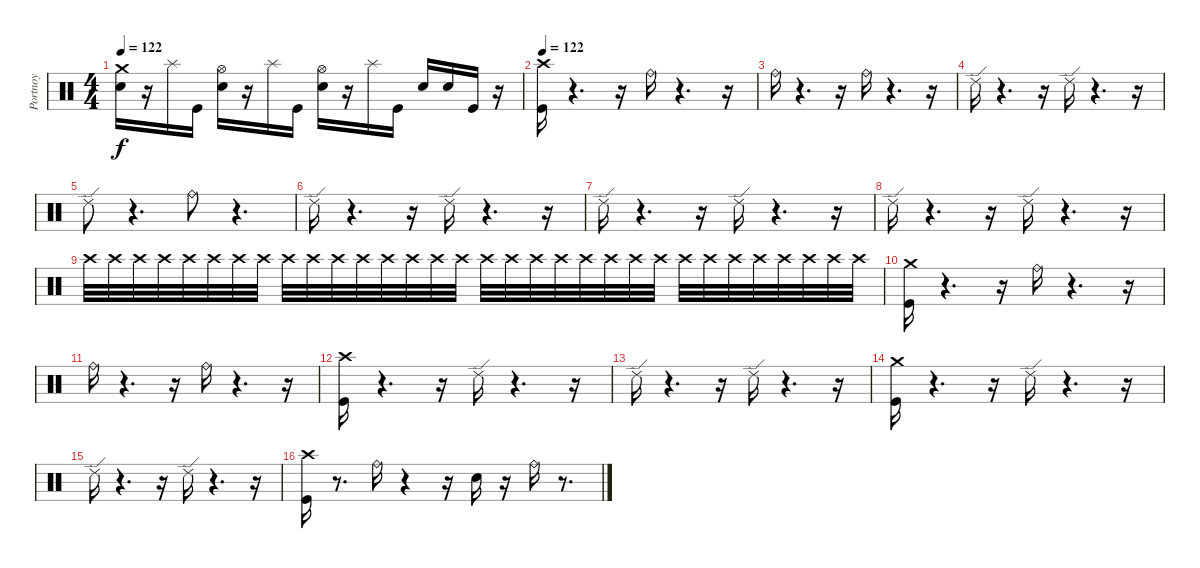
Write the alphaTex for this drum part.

\track ("Portnoy" "Portnoy") {instrument percussion}
\staff {score}
\articulation defaults
\ts (4 4)
\tempo 122
\clef neutral
\ks c
("Crash medium (hit)" "Metronome (bell)").16{dy f} r.16 "Splash (hit)".16 "Kick (hit)".16 ("Hi-Hat (open)" "Metronome (bell)").16 r.16 "Splash (hit)".16 "Kick (hit)".16 ("Hi-Hat (open)" "Metronome (bell)").16 r.16 "Splash (hit)".16 "Kick (hit)".16 "Metronome (bell)".16 "Metronome (bell)".16 "Kick (hit)".16 r.16 |
\tempo 122
("Crash high (hit)" "Kick (hit)").16 r.4{d} r.16 "Ride (bell)".16 r.4{d} r.16 |
"Ride (bell)".16 r.4{d} r.16 "Ride (bell)".16 r.4{d} r.16 |
"Ride (edge) 2".16 r.4{d} r.16 "Ride (edge) 2".16 r.4{d} r.16 |
"Ride (edge) 2".8 r.4{d} "Ride (bell)".8 r.4{d} |
"Ride (edge) 2".16 r.4{d} r.16 "Ride (edge) 2".16 r.4{d} r.16 |
"Ride (edge) 2".16 r.4{d} r.16 "Ride (edge) 2".16 r.4{d} r.16 |
"Ride (edge) 2".16 r.4{d} r.16 "Ride (edge) 2".16 r.4{d} r.16 |
"Crash high (hit)".32{volume 1} "Crash high (hit)".32{volume 2} "Crash high (hit)".32{volume 2} "Crash high (hit)".32{volume 3} "Crash high (hit)".32{volume 3} "Crash high (hit)".32{volume 4} "Crash high (hit)".32{volume 4} "Crash high (hit)".32{volume 4} "Crash high (hit)".32{volume 5} "Crash high (hit)".32{volume 5} "Crash high (hit)".32{volume 6} "Crash high (hit)".32{volume 6} "Crash high (hit)".32{volume 7} "Crash high (hit)".32{volume 7} "Crash high (hit)".32{volume 8} "Crash high (hit)".32{volume 8} "Crash high (hit)".32{volume 8} "Crash high (hit)".32{volume 9} "Crash high (hit)".32{volume 10} "Crash high (hit)".32{volume 10} "Crash high (hit)".32{volume 10} "Crash high (hit)".32{volume 11} "Crash high (hit)".32{volume 11} "Crash high (hit)".32{volume 12} "Crash high (hit)".32{volume 12} "Crash high (hit)".32{volume 13} "Crash high (hit)".32{volume 13} "Crash high (hit)".32{volume 14} "Crash high (hit)".32{volume 14} "Crash high (hit)".32{volume 14} "Crash high (hit)".32{volume 15} "Crash high (hit)".32{volume 15} |
("Crash medium (hit)" "Kick (hit)").16{volume 16} r.4{d} r.16 "Ride (bell)".16 r.4{d} r.16 |
"Ride (bell)".16 r.4{d} r.16 "Ride (bell)".16 r.4{d} r.16 |
("Crash high (hit)" "Kick (hit)").16 r.4{d} r.16 "Ride (edge) 2".16 r.4{d} r.16 |
"Ride (edge) 2".16 r.4{d} r.16 "Ride (edge) 2".16 r.4{d} r.16 |
("Crash medium (hit)" "Kick (hit)").16 r.4{d} r.16 "Ride (edge) 2".16 r.4{d} r.16 |
"Ride (edge) 2".16 r.4{d} r.16 "Ride (edge) 2".16 r.4{d} r.16 |
("Crash high (hit)" "Kick (hit)").16 r.8{d} "Ride (bell)".16 r.4 r.16 "Metronome (bell)".16 r.16 "Ride (bell)".16 r.8{d}
